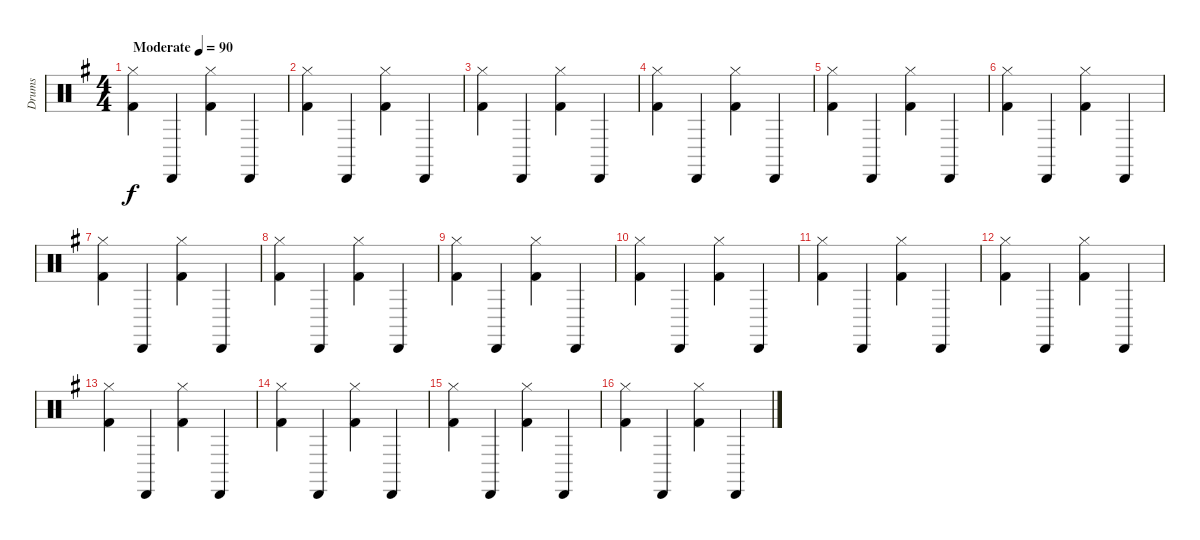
\track ("Drums" "Drums") {instrument percussion}
\staff {score}
\articulation defaults
\ts (4 4)
\tempo (90 "Moderate")
\clef neutral
\ks g
("Kick (hit) 2" "Hi-Hat (closed)").4{dy f} "Cabasa (hit)".4 ("Kick (hit) 2" "Hi-Hat (closed)").4 "Cabasa (hit)".4 |
("Kick (hit) 2" "Hi-Hat (closed)").4 "Cabasa (hit)".4 ("Kick (hit) 2" "Hi-Hat (closed)").4 "Cabasa (hit)".4 |
("Kick (hit) 2" "Hi-Hat (closed)").4 "Cabasa (hit)".4 ("Kick (hit) 2" "Hi-Hat (closed)").4 "Cabasa (hit)".4 |
("Kick (hit) 2" "Hi-Hat (closed)").4 "Cabasa (hit)".4 ("Kick (hit) 2" "Hi-Hat (closed)").4 "Cabasa (hit)".4 |
("Kick (hit) 2" "Hi-Hat (closed)").4 "Cabasa (hit)".4 ("Kick (hit) 2" "Hi-Hat (closed)").4 "Cabasa (hit)".4 |
("Kick (hit) 2" "Hi-Hat (closed)").4 "Cabasa (hit)".4 ("Kick (hit) 2" "Hi-Hat (closed)").4 "Cabasa (hit)".4 |
("Kick (hit) 2" "Hi-Hat (closed)").4 "Cabasa (hit)".4 ("Kick (hit) 2" "Hi-Hat (closed)").4 "Cabasa (hit)".4 |
("Kick (hit) 2" "Hi-Hat (closed)").4 "Cabasa (hit)".4 ("Kick (hit) 2" "Hi-Hat (closed)").4 "Cabasa (hit)".4 |
("Kick (hit) 2" "Hi-Hat (closed)").4 "Cabasa (hit)".4 ("Kick (hit) 2" "Hi-Hat (closed)").4 "Cabasa (hit)".4 |
("Kick (hit) 2" "Hi-Hat (closed)").4 "Cabasa (hit)".4 ("Kick (hit) 2" "Hi-Hat (closed)").4 "Cabasa (hit)".4 |
("Kick (hit) 2" "Hi-Hat (closed)").4 "Cabasa (hit)".4 ("Kick (hit) 2" "Hi-Hat (closed)").4 "Cabasa (hit)".4 |
("Kick (hit) 2" "Hi-Hat (closed)").4 "Cabasa (hit)".4 ("Kick (hit) 2" "Hi-Hat (closed)").4 "Cabasa (hit)".4 |
("Kick (hit) 2" "Hi-Hat (closed)").4 "Cabasa (hit)".4 ("Kick (hit) 2" "Hi-Hat (closed)").4 "Cabasa (hit)".4 |
("Kick (hit) 2" "Hi-Hat (closed)").4 "Cabasa (hit)".4 ("Kick (hit) 2" "Hi-Hat (closed)").4 "Cabasa (hit)".4 |
("Kick (hit) 2" "Hi-Hat (closed)").4 "Cabasa (hit)".4 ("Kick (hit) 2" "Hi-Hat (closed)").4 "Cabasa (hit)".4 |
("Kick (hit) 2" "Hi-Hat (closed)").4 "Cabasa (hit)".4 ("Kick (hit) 2" "Hi-Hat (closed)").4 "Cabasa (hit)".4
